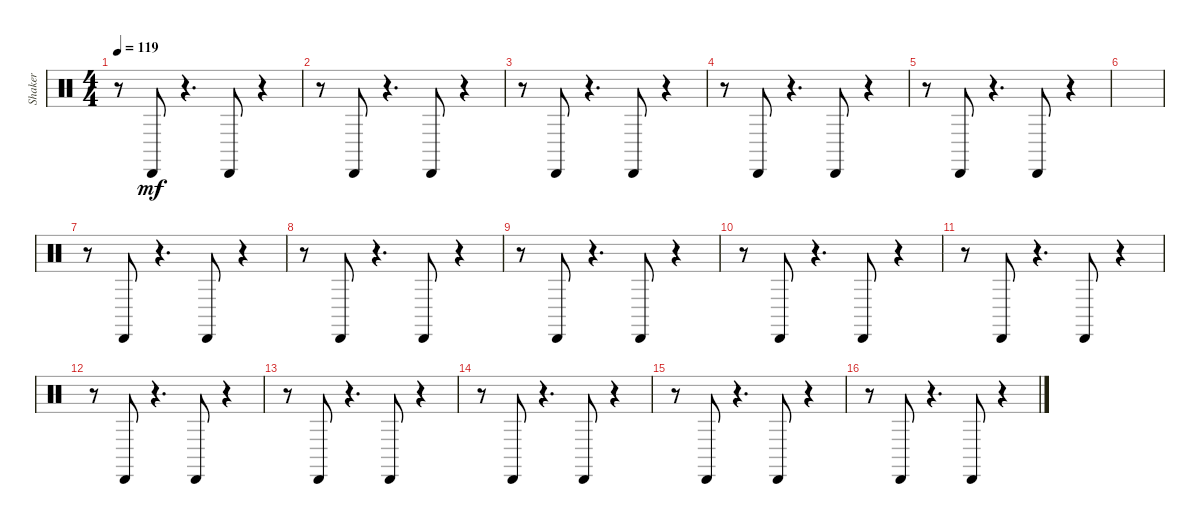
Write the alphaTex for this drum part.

\track ("Shaker" "Shaker") {instrument percussion}
\staff {score}
\articulation defaults
\ts (4 4)
\tempo 119
\clef neutral
\ks c
r.8{dy mf} "Cabasa (hit)".8 r.4{d} "Cabasa (hit)".8 r.4 |
r.8 "Cabasa (hit)".8 r.4{d} "Cabasa (hit)".8 r.4 |
r.8 "Cabasa (hit)".8 r.4{d} "Cabasa (hit)".8 r.4 |
r.8 "Cabasa (hit)".8 r.4{d} "Cabasa (hit)".8 r.4 |
r.8 "Cabasa (hit)".8 r.4{d} "Cabasa (hit)".8 r.4 |
|
r.8 "Cabasa (hit)".8 r.4{d} "Cabasa (hit)".8 r.4 |
r.8 "Cabasa (hit)".8 r.4{d} "Cabasa (hit)".8 r.4 |
r.8 "Cabasa (hit)".8 r.4{d} "Cabasa (hit)".8 r.4 |
r.8 "Cabasa (hit)".8 r.4{d} "Cabasa (hit)".8 r.4 |
r.8 "Cabasa (hit)".8 r.4{d} "Cabasa (hit)".8 r.4 |
r.8 "Cabasa (hit)".8 r.4{d} "Cabasa (hit)".8 r.4 |
r.8 "Cabasa (hit)".8 r.4{d} "Cabasa (hit)".8 r.4 |
r.8 "Cabasa (hit)".8 r.4{d} "Cabasa (hit)".8 r.4 |
r.8 "Cabasa (hit)".8 r.4{d} "Cabasa (hit)".8 r.4 |
r.8 "Cabasa (hit)".8 r.4{d} "Cabasa (hit)".8 r.4
